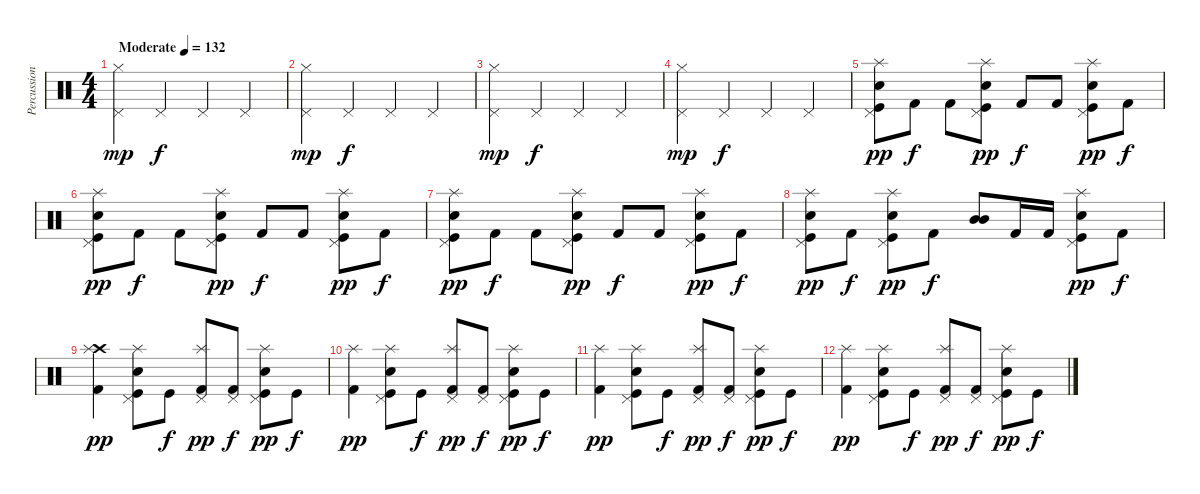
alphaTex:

\track ("Percussion" "Percussion") {instrument percussion}
\staff {score}
\articulation defaults
\ts (4 4)
\tempo (132 "Moderate")
\clef neutral
\ks c
("Pedal Hi-Hat (hit)" "Hi-Hat (closed)").4{dy mp} "Pedal Hi-Hat (hit)".4{dy f} "Pedal Hi-Hat (hit)".4 "Pedal Hi-Hat (hit)".4 |
("Pedal Hi-Hat (hit)" "Hi-Hat (closed)").4{dy mp} "Pedal Hi-Hat (hit)".4{dy f} "Pedal Hi-Hat (hit)".4 "Pedal Hi-Hat (hit)".4 |
("Pedal Hi-Hat (hit)" "Hi-Hat (closed)").4{dy mp} "Pedal Hi-Hat (hit)".4{dy f} "Pedal Hi-Hat (hit)".4 "Pedal Hi-Hat (hit)".4 |
("Pedal Hi-Hat (hit)" "Hi-Hat (closed)").4{dy mp} "Pedal Hi-Hat (hit)".4{dy f} "Pedal Hi-Hat (hit)".4 "Pedal Hi-Hat (hit)".4 |
("Pedal Hi-Hat (hit)" "Electric Snare (hit)" "Kick (hit)" "Splash (hit)").8{dy pp} "Kick (hit) 2".8{dy f} "Kick (hit) 2".8 ("Pedal Hi-Hat (hit)" "Electric Snare (hit)" "Kick (hit)" "Splash (hit)").8{dy pp} "Kick (hit) 2".8{dy f} "Kick (hit) 2".8 ("Pedal Hi-Hat (hit)" "Electric Snare (hit)" "Kick (hit)" "Splash (hit)").8{dy pp} "Kick (hit) 2".8{dy f} |
("Pedal Hi-Hat (hit)" "Electric Snare (hit)" "Kick (hit)" "Splash (hit)").8{dy pp} "Kick (hit) 2".8{dy f} "Kick (hit) 2".8 ("Pedal Hi-Hat (hit)" "Electric Snare (hit)" "Kick (hit)" "Splash (hit)").8{dy pp} "Kick (hit) 2".8{dy f} "Kick (hit) 2".8 ("Pedal Hi-Hat (hit)" "Electric Snare (hit)" "Kick (hit)" "Splash (hit)").8{dy pp} "Kick (hit) 2".8{dy f} |
("Pedal Hi-Hat (hit)" "Electric Snare (hit)" "Kick (hit)" "Splash (hit)").8{dy pp} "Kick (hit) 2".8{dy f} "Kick (hit) 2".8 ("Pedal Hi-Hat (hit)" "Electric Snare (hit)" "Kick (hit)" "Splash (hit)").8{dy pp} "Kick (hit) 2".8{dy f} "Kick (hit) 2".8 ("Pedal Hi-Hat (hit)" "Electric Snare (hit)" "Kick (hit)" "Splash (hit)").8{dy pp} "Kick (hit) 2".8{dy f} |
("Pedal Hi-Hat (hit)" "Electric Snare (hit)" "Kick (hit)" "Splash (hit)").8{dy pp} "Kick (hit) 2".8{dy f} ("Pedal Hi-Hat (hit)" "Electric Snare (hit)" "Kick (hit)" "Splash (hit)").8{dy pp} "Kick (hit) 2".8{dy f} ("Mid Tom (hit)" "Mid Tom (hit)").8 "Kick (hit) 2".16 "Kick (hit) 2".16 ("Pedal Hi-Hat (hit)" "Electric Snare (hit)" "Kick (hit)" "Splash (hit)").8{dy pp} "Kick (hit) 2".8{dy f} |
("Kick (hit) 2" "Crash high (hit)" "Splash (hit)").4{dy pp} ("Pedal Hi-Hat (hit)" "Electric Snare (hit)" "Kick (hit)" "Splash (hit)").8 "Kick (hit)".8{dy f} ("Pedal Hi-Hat (hit)" "Kick (hit) 2" "Splash (hit)").8{dy pp} ("Pedal Hi-Hat (hit)" "Kick (hit) 2").8{dy f} ("Pedal Hi-Hat (hit)" "Electric Snare (hit)" "Kick (hit)" "Splash (hit)").8{dy pp} "Kick (hit)".8{dy f} |
("Kick (hit) 2" "Splash (hit)").4{dy pp} ("Pedal Hi-Hat (hit)" "Electric Snare (hit)" "Kick (hit)" "Splash (hit)").8 "Kick (hit)".8{dy f} ("Pedal Hi-Hat (hit)" "Kick (hit) 2" "Splash (hit)").8{dy pp} ("Pedal Hi-Hat (hit)" "Kick (hit) 2").8{dy f} ("Pedal Hi-Hat (hit)" "Electric Snare (hit)" "Kick (hit)" "Splash (hit)").8{dy pp} "Kick (hit)".8{dy f} |
("Kick (hit) 2" "Splash (hit)").4{dy pp} ("Pedal Hi-Hat (hit)" "Electric Snare (hit)" "Kick (hit)" "Splash (hit)").8 "Kick (hit)".8{dy f} ("Pedal Hi-Hat (hit)" "Kick (hit) 2" "Splash (hit)").8{dy pp} ("Pedal Hi-Hat (hit)" "Kick (hit) 2").8{dy f} ("Pedal Hi-Hat (hit)" "Electric Snare (hit)" "Kick (hit)" "Splash (hit)").8{dy pp} "Kick (hit)".8{dy f} |
("Kick (hit) 2" "Splash (hit)").4{dy pp} ("Pedal Hi-Hat (hit)" "Electric Snare (hit)" "Kick (hit)" "Splash (hit)").8 "Kick (hit)".8{dy f} ("Pedal Hi-Hat (hit)" "Kick (hit) 2" "Splash (hit)").8{dy pp} ("Pedal Hi-Hat (hit)" "Kick (hit) 2").8{dy f} ("Pedal Hi-Hat (hit)" "Electric Snare (hit)" "Kick (hit)" "Splash (hit)").8{dy pp} "Kick (hit)".8{dy f}
